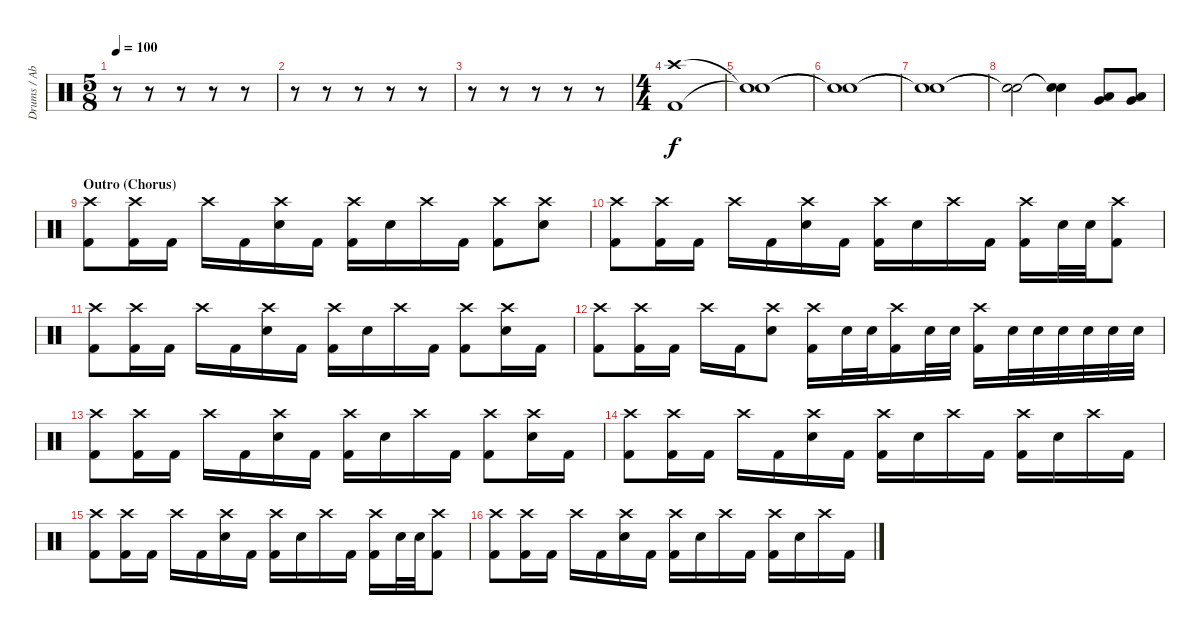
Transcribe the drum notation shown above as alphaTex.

\track ("Drums / Abe Cunningham" "Drums / Ab") {instrument percussion}
\staff {score}
\articulation defaults
\ts (5 8)
\tempo 100
\clef neutral
\ks c
r.8{dy f} r.8 r.8 r.8 r.8 |
r.8 r.8 r.8 r.8 r.8 |
r.8 r.8 r.8 r.8 r.8 |
\ts (4 4)
("Crash high (hit)" "Kick (hit) 2").1 |
("Snare (hit)"{t} "Snare (hit)"{t}).1 |
("Snare (hit)"{t} "Snare (hit)"{t}).1 |
("Snare (hit)"{t} "Snare (hit)"{t}).1 |
("Snare (hit)"{t} "Snare (hit)"{t}).2 ("Snare (hit)"{t} "Snare (hit)"{t}).4 ("Low Tom (hit)" "Very Low Tom (hit)").8 ("Low Tom (hit)" "Very Low Tom (hit)").8 |
\section ("" "Outro (Chorus)")
("Crash high (hit)" "Kick (hit) 2").8 ("Crash high (hit)" "Kick (hit) 2").16 "Kick (hit) 2".16 "Crash high (hit)".16 "Kick (hit) 2".16 ("Crash high (hit)" "Electric Snare (hit)").16 "Kick (hit) 2".16 ("Crash high (hit)" "Kick (hit) 2").16 "Electric Snare (hit)".16 "Crash high (hit)".16 "Kick (hit) 2".16 ("Crash high (hit)" "Kick (hit) 2").8 ("Crash high (hit)" "Electric Snare (hit)").8 |
("Crash high (hit)" "Kick (hit) 2").8 ("Crash high (hit)" "Kick (hit) 2").16 "Kick (hit) 2".16 "Crash high (hit)".16 "Kick (hit) 2".16 ("Crash high (hit)" "Electric Snare (hit)").16 "Kick (hit) 2".16 ("Crash high (hit)" "Kick (hit) 2").16 "Electric Snare (hit)".16 "Crash high (hit)".16 "Kick (hit) 2".16 ("Crash high (hit)" "Kick (hit) 2").16 "Electric Snare (hit)".32 "Electric Snare (hit)".32 ("Crash high (hit)" "Kick (hit) 2").8 |
("Crash high (hit)" "Kick (hit) 2").8 ("Crash high (hit)" "Kick (hit) 2").16 "Kick (hit) 2".16 "Crash high (hit)".16 "Kick (hit) 2".16 ("Crash high (hit)" "Electric Snare (hit)").16 "Kick (hit) 2".16 ("Crash high (hit)" "Kick (hit) 2").16 "Electric Snare (hit)".16 "Crash high (hit)".16 "Kick (hit) 2".16 ("Crash high (hit)" "Kick (hit) 2").8 ("Crash high (hit)" "Electric Snare (hit)").16 "Kick (hit) 2".16 |
("Crash high (hit)" "Kick (hit) 2").8 ("Crash high (hit)" "Kick (hit) 2").16 "Kick (hit) 2".16 "Crash high (hit)".16 "Kick (hit) 2".16 ("Crash high (hit)" "Electric Snare (hit)").8 ("Crash high (hit)" "Kick (hit) 2").16 "Electric Snare (hit)".32 "Electric Snare (hit)".32 ("Crash high (hit)" "Kick (hit) 2").16 "Electric Snare (hit)".32 "Electric Snare (hit)".32 ("Crash high (hit)" "Kick (hit) 2").16 "Electric Snare (hit)".32 "Electric Snare (hit)".32 "Electric Snare (hit)".32 "Electric Snare (hit)".32 "Electric Snare (hit)".32 "Electric Snare (hit)".32 |
("Crash high (hit)" "Kick (hit) 2").8 ("Crash high (hit)" "Kick (hit) 2").16 "Kick (hit) 2".16 "Crash high (hit)".16 "Kick (hit) 2".16 ("Crash high (hit)" "Electric Snare (hit)").16 "Kick (hit) 2".16 ("Crash high (hit)" "Kick (hit) 2").16 "Electric Snare (hit)".16 "Crash high (hit)".16 "Kick (hit) 2".16 ("Crash high (hit)" "Kick (hit) 2").8 ("Crash high (hit)" "Electric Snare (hit)").16 "Kick (hit) 2".16 |
("Crash high (hit)" "Kick (hit) 2").8 ("Crash high (hit)" "Kick (hit) 2").16 "Kick (hit) 2".16 "Crash high (hit)".16 "Kick (hit) 2".16 ("Crash high (hit)" "Electric Snare (hit)").16 "Kick (hit) 2".16 ("Crash high (hit)" "Kick (hit) 2").16 "Electric Snare (hit)".16 "Crash high (hit)".16 "Kick (hit) 2".16 ("Crash high (hit)" "Kick (hit) 2").16 "Electric Snare (hit)".16 "Crash high (hit)".16 "Kick (hit) 2".16 |
("Crash high (hit)" "Kick (hit) 2").8 ("Crash high (hit)" "Kick (hit) 2").16 "Kick (hit) 2".16 "Crash high (hit)".16 "Kick (hit) 2".16 ("Crash high (hit)" "Electric Snare (hit)").16 "Kick (hit) 2".16 ("Crash high (hit)" "Kick (hit) 2").16 "Electric Snare (hit)".16 "Crash high (hit)".16 "Kick (hit) 2".16 ("Crash high (hit)" "Kick (hit) 2").16 "Electric Snare (hit)".32 "Electric Snare (hit)".32 ("Crash high (hit)" "Kick (hit) 2").8 |
("Crash high (hit)" "Kick (hit) 2").8 ("Crash high (hit)" "Kick (hit) 2").16 "Kick (hit) 2".16 "Crash high (hit)".16 "Kick (hit) 2".16 ("Crash high (hit)" "Electric Snare (hit)").16 "Kick (hit) 2".16 ("Crash high (hit)" "Kick (hit) 2").16 "Electric Snare (hit)".16 "Crash high (hit)".16 "Kick (hit) 2".16 ("Crash high (hit)" "Kick (hit) 2").16 "Electric Snare (hit)".16 "Crash high (hit)".16 "Kick (hit) 2".16
